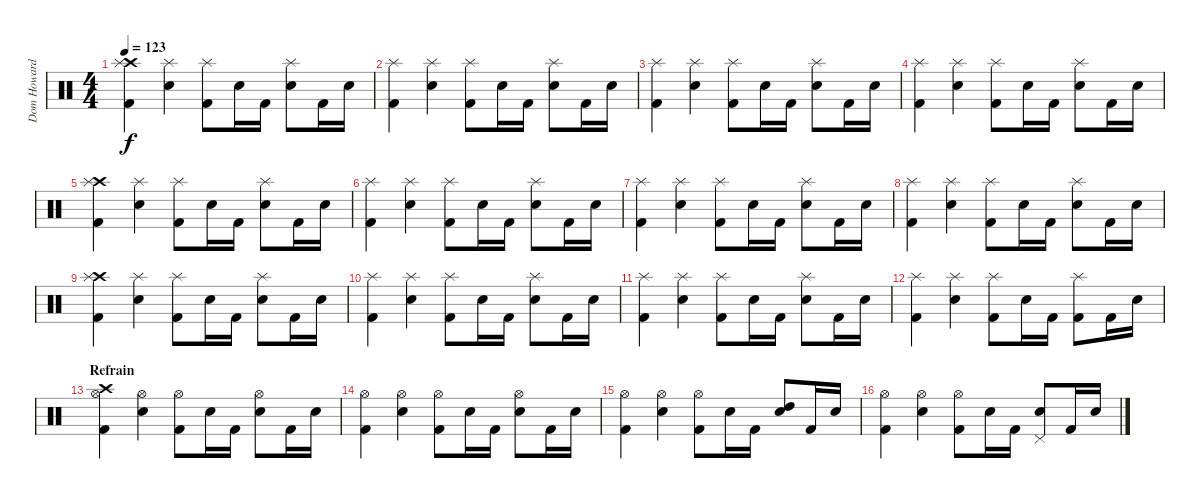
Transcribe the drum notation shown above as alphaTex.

\track ("Dom Howard" "Dom Howard") {instrument percussion}
\staff {score}
\articulation defaults
\ts (4 4)
\tempo 123
\clef neutral
\ks c
("Crash high (hit)" "Splash (hit)" "Kick (hit) 2").4{dy f} ("Splash (hit)" "Snare (hit) 2").4 ("Splash (hit)" "Kick (hit) 2").8 "Snare (hit) 2".16 "Kick (hit) 2".16 ("Splash (hit)" "Snare (hit) 2").8 "Kick (hit) 2".16 "Snare (hit) 2".16 |
("Splash (hit)" "Kick (hit) 2").4 ("Splash (hit)" "Snare (hit) 2").4 ("Splash (hit)" "Kick (hit) 2").8 "Snare (hit) 2".16 "Kick (hit) 2".16 ("Splash (hit)" "Snare (hit) 2").8 "Kick (hit) 2".16 "Snare (hit) 2".16 |
("Splash (hit)" "Kick (hit) 2").4 ("Splash (hit)" "Snare (hit) 2").4 ("Splash (hit)" "Kick (hit) 2").8 "Snare (hit) 2".16 "Kick (hit) 2".16 ("Splash (hit)" "Snare (hit) 2").8 "Kick (hit) 2".16 "Snare (hit) 2".16 |
("Splash (hit)" "Kick (hit) 2").4 ("Splash (hit)" "Snare (hit) 2").4 ("Splash (hit)" "Kick (hit) 2").8 "Snare (hit) 2".16 "Kick (hit) 2".16 ("Splash (hit)" "Snare (hit) 2").8 "Kick (hit) 2".16 "Snare (hit) 2".16 |
("Crash high (hit)" "Splash (hit)" "Kick (hit) 2").4 ("Splash (hit)" "Snare (hit) 2").4 ("Splash (hit)" "Kick (hit) 2").8 "Snare (hit) 2".16 "Kick (hit) 2".16 ("Splash (hit)" "Snare (hit) 2").8 "Kick (hit) 2".16 "Snare (hit) 2".16 |
("Splash (hit)" "Kick (hit) 2").4 ("Splash (hit)" "Snare (hit) 2").4 ("Splash (hit)" "Kick (hit) 2").8 "Snare (hit) 2".16 "Kick (hit) 2".16 ("Splash (hit)" "Snare (hit) 2").8 "Kick (hit) 2".16 "Snare (hit) 2".16 |
("Splash (hit)" "Kick (hit) 2").4 ("Splash (hit)" "Snare (hit) 2").4 ("Splash (hit)" "Kick (hit) 2").8 "Snare (hit) 2".16 "Kick (hit) 2".16 ("Splash (hit)" "Snare (hit) 2").8 "Kick (hit) 2".16 "Snare (hit) 2".16 |
("Splash (hit)" "Kick (hit) 2").4 ("Splash (hit)" "Snare (hit) 2").4 ("Splash (hit)" "Kick (hit) 2").8 "Snare (hit) 2".16 "Kick (hit) 2".16 ("Splash (hit)" "Snare (hit) 2").8 "Kick (hit) 2".16 "Snare (hit) 2".16 |
("Crash high (hit)" "Splash (hit)" "Kick (hit) 2").4 ("Splash (hit)" "Snare (hit) 2").4 ("Splash (hit)" "Kick (hit) 2").8 "Snare (hit) 2".16 "Kick (hit) 2".16 ("Splash (hit)" "Snare (hit) 2").8 "Kick (hit) 2".16 "Snare (hit) 2".16 |
("Splash (hit)" "Kick (hit) 2").4 ("Splash (hit)" "Snare (hit) 2").4 ("Splash (hit)" "Kick (hit) 2").8 "Snare (hit) 2".16 "Kick (hit) 2".16 ("Splash (hit)" "Snare (hit) 2").8 "Kick (hit) 2".16 "Snare (hit) 2".16 |
("Splash (hit)" "Kick (hit) 2").4 ("Splash (hit)" "Snare (hit) 2").4 ("Splash (hit)" "Kick (hit) 2").8 "Snare (hit) 2".16 "Kick (hit) 2".16 ("Splash (hit)" "Snare (hit) 2").8 "Kick (hit) 2".16 "Snare (hit) 2".16 |
("Splash (hit)" "Kick (hit) 2").4 ("Splash (hit)" "Snare (hit) 2").4 ("Splash (hit)" "Kick (hit) 2").8 "Snare (hit) 2".16 "Kick (hit) 2".16 ("Splash (hit)" "Kick (hit) 2").8 "Kick (hit) 2".16 "Snare (hit) 2".16 |
\section ("" "Refrain")
("Crash high (hit)" "Hi-Hat (open)" "Kick (hit) 2").4 ("Hi-Hat (open)" "Snare (hit) 2").4 ("Hi-Hat (open)" "Kick (hit) 2").8 "Snare (hit) 2".16 "Kick (hit) 2".16 ("Hi-Hat (open)" "Snare (hit) 2").8 "Kick (hit) 2".16 "Snare (hit) 2".16 |
("Hi-Hat (open)" "Kick (hit) 2").4 ("Hi-Hat (open)" "Snare (hit) 2").4 ("Hi-Hat (open)" "Kick (hit) 2").8 "Snare (hit) 2".16 "Kick (hit) 2".16 ("Hi-Hat (open)" "Snare (hit) 2").8 "Kick (hit) 2".16 "Snare (hit) 2".16 |
("Hi-Hat (open)" "Kick (hit) 2").4 ("Hi-Hat (open)" "Snare (hit) 2").4 ("Hi-Hat (open)" "Kick (hit) 2").8 "Snare (hit) 2".16 "Kick (hit) 2".16 ("High Tom (hit)" "Snare (hit) 2").8 "Kick (hit) 2".16 "Snare (hit) 2".16 |
("Hi-Hat (open)" "Kick (hit) 2").4 ("Hi-Hat (open)" "Snare (hit) 2").4 ("Hi-Hat (open)" "Kick (hit) 2").8 "Snare (hit) 2".16 "Kick (hit) 2".16 ("Pedal Hi-Hat (hit)" "Snare (hit) 2").8 "Kick (hit) 2".16 "Snare (hit) 2".16
